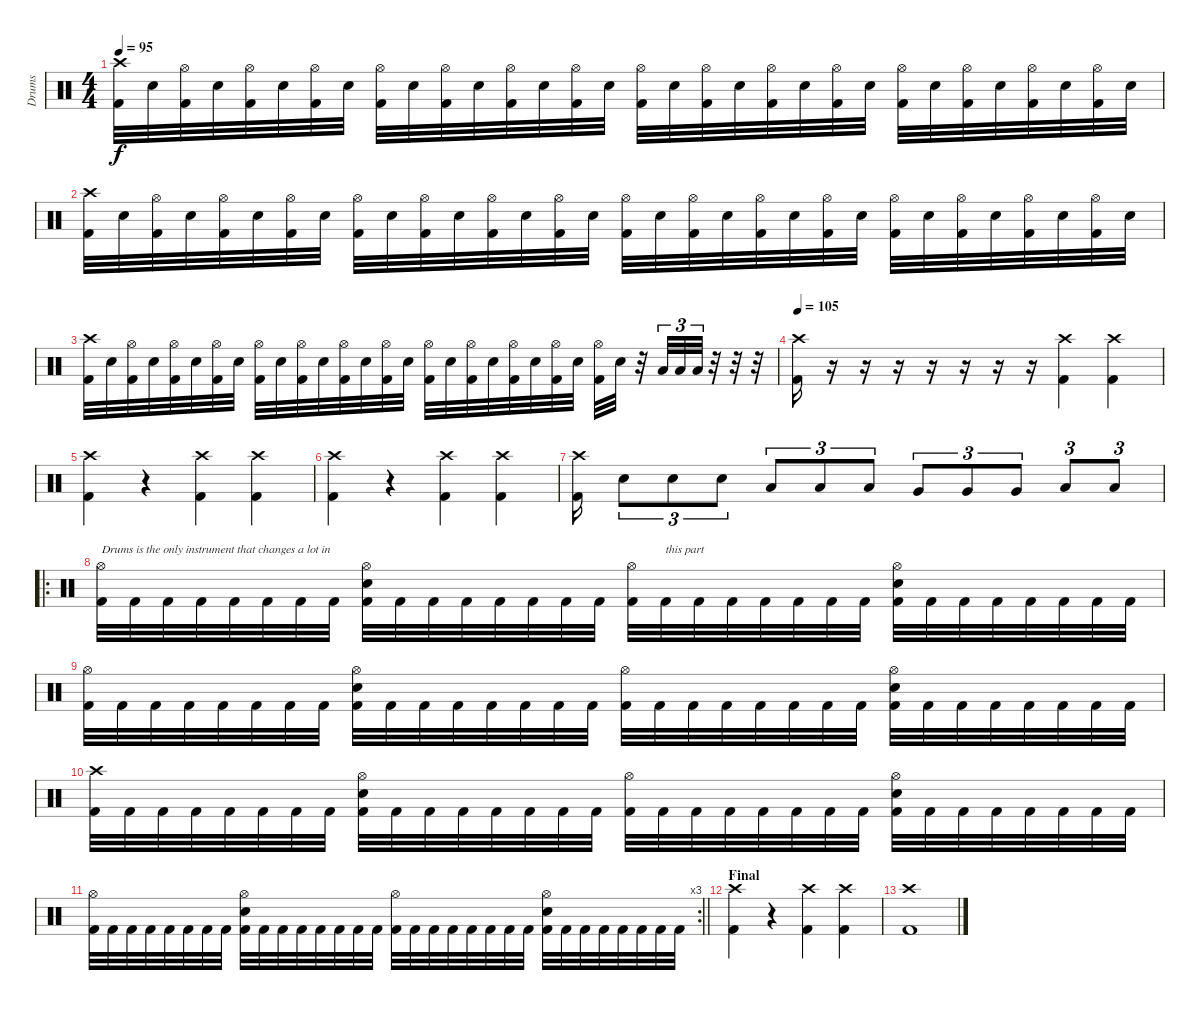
\track ("Drums" "Drums") {instrument percussion}
\staff {score}
\articulation defaults
\ts (4 4)
\tempo 95
\clef neutral
\ks c
("Crash high (hit)" "Kick (hit) 2").32{dy f} "Snare (hit) 2".32 ("Hi-Hat (open)" "Kick (hit) 2").32 "Snare (hit) 2".32 ("Hi-Hat (open)" "Kick (hit) 2").32 "Snare (hit) 2".32 ("Hi-Hat (open)" "Kick (hit) 2").32 "Snare (hit) 2".32 ("Hi-Hat (open)" "Kick (hit) 2").32 "Snare (hit) 2".32 ("Hi-Hat (open)" "Kick (hit) 2").32 "Snare (hit) 2".32 ("Hi-Hat (open)" "Kick (hit) 2").32 "Snare (hit) 2".32 ("Hi-Hat (open)" "Kick (hit) 2").32 "Snare (hit) 2".32 ("Hi-Hat (open)" "Kick (hit) 2").32 "Snare (hit) 2".32 ("Hi-Hat (open)" "Kick (hit) 2").32 "Snare (hit) 2".32 ("Hi-Hat (open)" "Kick (hit) 2").32 "Snare (hit) 2".32 ("Hi-Hat (open)" "Kick (hit) 2").32 "Snare (hit) 2".32 ("Hi-Hat (open)" "Kick (hit) 2").32 "Snare (hit) 2".32 ("Hi-Hat (open)" "Kick (hit) 2").32 "Snare (hit) 2".32 ("Hi-Hat (open)" "Kick (hit) 2").32 "Snare (hit) 2".32 ("Hi-Hat (open)" "Kick (hit) 2").32 "Snare (hit) 2".32 |
("Crash high (hit)" "Kick (hit) 2").32 "Snare (hit) 2".32 ("Hi-Hat (open)" "Kick (hit) 2").32 "Snare (hit) 2".32 ("Hi-Hat (open)" "Kick (hit) 2").32 "Snare (hit) 2".32 ("Hi-Hat (open)" "Kick (hit) 2").32 "Snare (hit) 2".32 ("Hi-Hat (open)" "Kick (hit) 2").32 "Snare (hit) 2".32 ("Hi-Hat (open)" "Kick (hit) 2").32 "Snare (hit) 2".32 ("Hi-Hat (open)" "Kick (hit) 2").32 "Snare (hit) 2".32 ("Hi-Hat (open)" "Kick (hit) 2").32 "Snare (hit) 2".32 ("Hi-Hat (open)" "Kick (hit) 2").32 "Snare (hit) 2".32 ("Hi-Hat (open)" "Kick (hit) 2").32 "Snare (hit) 2".32 ("Hi-Hat (open)" "Kick (hit) 2").32 "Snare (hit) 2".32 ("Hi-Hat (open)" "Kick (hit) 2").32 "Snare (hit) 2".32 ("Hi-Hat (open)" "Kick (hit) 2").32 "Snare (hit) 2".32 ("Hi-Hat (open)" "Kick (hit) 2").32 "Snare (hit) 2".32 ("Hi-Hat (open)" "Kick (hit) 2").32 "Snare (hit) 2".32 ("Hi-Hat (open)" "Kick (hit) 2").32 "Snare (hit) 2".32 |
("Crash high (hit)" "Kick (hit) 2").32 "Snare (hit) 2".32 ("Hi-Hat (open)" "Kick (hit) 2").32 "Snare (hit) 2".32 ("Hi-Hat (open)" "Kick (hit) 2").32 "Snare (hit) 2".32 ("Hi-Hat (open)" "Kick (hit) 2").32 "Snare (hit) 2".32 ("Hi-Hat (open)" "Kick (hit) 2").32 "Snare (hit) 2".32 ("Hi-Hat (open)" "Kick (hit) 2").32 "Snare (hit) 2".32 ("Hi-Hat (open)" "Kick (hit) 2").32 "Snare (hit) 2".32 ("Hi-Hat (open)" "Kick (hit) 2").32 "Snare (hit) 2".32 ("Hi-Hat (open)" "Kick (hit) 2").32 "Snare (hit) 2".32 ("Hi-Hat (open)" "Kick (hit) 2").32 "Snare (hit) 2".32 ("Hi-Hat (open)" "Kick (hit) 2").32 "Snare (hit) 2".32 ("Hi-Hat (open)" "Kick (hit) 2").32 "Snare (hit) 2".32 ("Hi-Hat (open)" "Kick (hit) 2").32 "Snare (hit) 2".32 r.32 "Low Floor Tom (hit)".32{tu (3 2)} "Low Floor Tom (hit)".32{tu (3 2)} "Low Floor Tom (hit)".32{tu (3 2)} r.32 r.32 r.32 |
\tempo 105
("Crash high (hit)" "Kick (hit) 2").16 r.16 r.16 r.16 r.16 r.16 r.16 r.16 ("Crash high (hit)" "Kick (hit) 2").4 ("Crash high (hit)" "Kick (hit) 2").4 |
("Crash high (hit)" "Kick (hit) 2").4 r.4 ("Crash high (hit)" "Kick (hit) 2").4 ("Crash high (hit)" "Kick (hit) 2").4 |
("Crash high (hit)" "Kick (hit) 2").4 r.4 ("Crash high (hit)" "Kick (hit) 2").4 ("Crash high (hit)" "Kick (hit) 2").4 |
("Crash high (hit)" "Kick (hit) 2").16 "Snare (hit) 2".8{tu (3 2)} "Snare (hit) 2".8{tu (3 2)} "Snare (hit) 2".8{tu (3 2)} "Low Floor Tom (hit)".8{tu (3 2)} "Low Floor Tom (hit)".8{tu (3 2)} "Low Floor Tom (hit)".8{tu (3 2)} "Very Low Tom (hit)".8{tu (3 2)} "Very Low Tom (hit)".8{tu (3 2)} "Very Low Tom (hit)".8{tu (3 2)} "Low Floor Tom (hit)".8{tu (3 2)} "Low Floor Tom (hit)".8{tu (3 2)} |
\ro
("Hi-Hat (open)" "Kick (hit) 2").32{txt "Drums is the only instrument that changes a lot in"} "Kick (hit) 2".32 "Kick (hit) 2".32 "Kick (hit) 2".32 "Kick (hit) 2".32 "Kick (hit) 2".32 "Kick (hit) 2".32 "Kick (hit) 2".32 ("Hi-Hat (open)" "Snare (hit) 2" "Kick (hit) 2").32 "Kick (hit) 2".32 "Kick (hit) 2".32 "Kick (hit) 2".32 "Kick (hit) 2".32 "Kick (hit) 2".32 "Kick (hit) 2".32 "Kick (hit) 2".32 ("Hi-Hat (open)" "Kick (hit) 2").32 "Kick (hit) 2".32{txt "this part"} "Kick (hit) 2".32 "Kick (hit) 2".32 "Kick (hit) 2".32 "Kick (hit) 2".32 "Kick (hit) 2".32 "Kick (hit) 2".32 ("Hi-Hat (open)" "Snare (hit) 2" "Kick (hit) 2").32 "Kick (hit) 2".32 "Kick (hit) 2".32 "Kick (hit) 2".32 "Kick (hit) 2".32 "Kick (hit) 2".32 "Kick (hit) 2".32 "Kick (hit) 2".32 |
("Hi-Hat (open)" "Kick (hit) 2").32 "Kick (hit) 2".32 "Kick (hit) 2".32 "Kick (hit) 2".32 "Kick (hit) 2".32 "Kick (hit) 2".32 "Kick (hit) 2".32 "Kick (hit) 2".32 ("Hi-Hat (open)" "Snare (hit) 2" "Kick (hit) 2").32 "Kick (hit) 2".32 "Kick (hit) 2".32 "Kick (hit) 2".32 "Kick (hit) 2".32 "Kick (hit) 2".32 "Kick (hit) 2".32 "Kick (hit) 2".32 ("Hi-Hat (open)" "Kick (hit) 2").32 "Kick (hit) 2".32 "Kick (hit) 2".32 "Kick (hit) 2".32 "Kick (hit) 2".32 "Kick (hit) 2".32 "Kick (hit) 2".32 "Kick (hit) 2".32 ("Hi-Hat (open)" "Snare (hit) 2" "Kick (hit) 2").32 "Kick (hit) 2".32 "Kick (hit) 2".32 "Kick (hit) 2".32 "Kick (hit) 2".32 "Kick (hit) 2".32 "Kick (hit) 2".32 "Kick (hit) 2".32 |
("Crash high (hit)" "Kick (hit) 2").32 "Kick (hit) 2".32 "Kick (hit) 2".32 "Kick (hit) 2".32 "Kick (hit) 2".32 "Kick (hit) 2".32 "Kick (hit) 2".32 "Kick (hit) 2".32 ("Hi-Hat (open)" "Snare (hit) 2" "Kick (hit) 2").32 "Kick (hit) 2".32 "Kick (hit) 2".32 "Kick (hit) 2".32 "Kick (hit) 2".32 "Kick (hit) 2".32 "Kick (hit) 2".32 "Kick (hit) 2".32 ("Hi-Hat (open)" "Kick (hit) 2").32 "Kick (hit) 2".32 "Kick (hit) 2".32 "Kick (hit) 2".32 "Kick (hit) 2".32 "Kick (hit) 2".32 "Kick (hit) 2".32 "Kick (hit) 2".32 ("Hi-Hat (open)" "Snare (hit) 2" "Kick (hit) 2").32 "Kick (hit) 2".32 "Kick (hit) 2".32 "Kick (hit) 2".32 "Kick (hit) 2".32 "Kick (hit) 2".32 "Kick (hit) 2".32 "Kick (hit) 2".32 |
\rc 3
\barLineRight lightlight
("Hi-Hat (open)" "Kick (hit) 2").32 "Kick (hit) 2".32 "Kick (hit) 2".32 "Kick (hit) 2".32 "Kick (hit) 2".32 "Kick (hit) 2".32 "Kick (hit) 2".32 "Kick (hit) 2".32 ("Hi-Hat (open)" "Snare (hit) 2" "Kick (hit) 2").32 "Kick (hit) 2".32 "Kick (hit) 2".32 "Kick (hit) 2".32 "Kick (hit) 2".32 "Kick (hit) 2".32 "Kick (hit) 2".32 "Kick (hit) 2".32 ("Hi-Hat (open)" "Kick (hit) 2").32 "Kick (hit) 2".32 "Kick (hit) 2".32 "Kick (hit) 2".32 "Kick (hit) 2".32 "Kick (hit) 2".32 "Kick (hit) 2".32 "Kick (hit) 2".32 ("Hi-Hat (open)" "Snare (hit) 2" "Kick (hit) 2").32 "Kick (hit) 2".32 "Kick (hit) 2".32 "Kick (hit) 2".32 "Kick (hit) 2".32 "Kick (hit) 2".32 "Kick (hit) 2".32 "Kick (hit) 2".32 |
\section ("" "Final")
("Crash high (hit)" "Kick (hit) 2").4 r.4 ("Crash high (hit)" "Kick (hit) 2").4 ("Crash high (hit)" "Kick (hit) 2").4 |
("Crash high (hit)" "Kick (hit) 2").1
